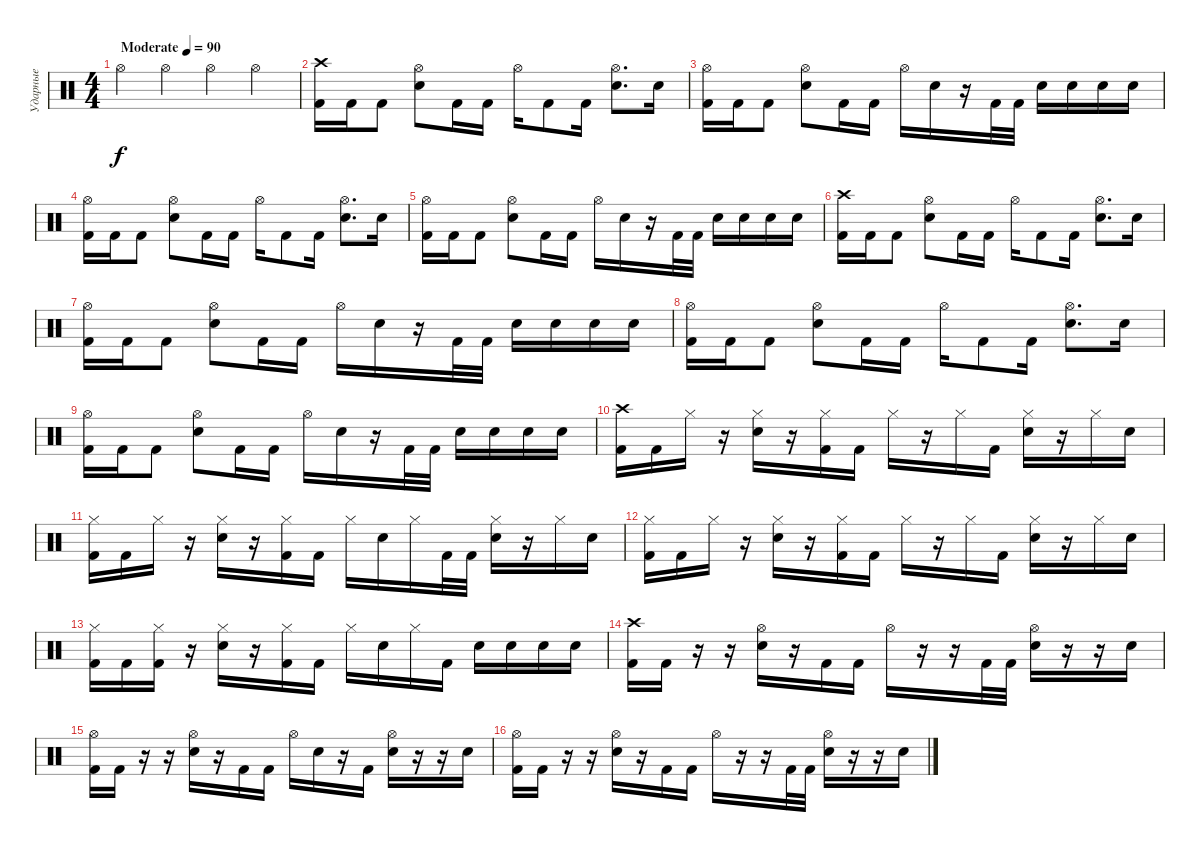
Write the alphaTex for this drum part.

\track ("Ударные" "Ударные") {instrument percussion}
\staff {score}
\articulation defaults
\ts (4 4)
\tempo (90 "Moderate")
\clef neutral
\ks c "Hi-Hat (open)".4{dy f} "Hi-Hat (open)".4 "Hi-Hat (open)".4 "Hi-Hat (open)".4
|
("Crash high (hit)" "Kick (hit) 2").16 "Kick (hit) 2".16 "Kick (hit) 2".8 ("Hi-Hat (open)" "Snare (hit) 2").8 "Kick (hit) 2".16 "Kick (hit) 2".16 "Hi-Hat (open)".16 "Kick (hit) 2".8 "Kick (hit) 2".16 ("Hi-Hat (open)" "Snare (hit) 2").8{d} "Snare (hit) 2".16 |
("Hi-Hat (open)" "Kick (hit) 2").16 "Kick (hit) 2".16 "Kick (hit) 2".8 ("Hi-Hat (open)" "Snare (hit) 2").8 "Kick (hit) 2".16 "Kick (hit) 2".16 "Hi-Hat (open)".16 "Snare (hit) 2".16 r.16 "Kick (hit) 2".32 "Kick (hit) 2".32 "Snare (hit) 2".16 "Snare (hit) 2".16 "Snare (hit) 2".16 "Snare (hit) 2".16 |
("Hi-Hat (open)" "Kick (hit) 2").16 "Kick (hit) 2".16 "Kick (hit) 2".8 ("Hi-Hat (open)" "Snare (hit) 2").8 "Kick (hit) 2".16 "Kick (hit) 2".16 "Hi-Hat (open)".16 "Kick (hit) 2".8 "Kick (hit) 2".16 ("Hi-Hat (open)" "Snare (hit) 2").8{d} "Snare (hit) 2".16 |
("Hi-Hat (open)" "Kick (hit) 2").16 "Kick (hit) 2".16 "Kick (hit) 2".8 ("Hi-Hat (open)" "Snare (hit) 2").8 "Kick (hit) 2".16 "Kick (hit) 2".16 "Hi-Hat (open)".16 "Snare (hit) 2".16 r.16 "Kick (hit) 2".32 "Kick (hit) 2".32 "Snare (hit) 2".16 "Snare (hit) 2".16 "Snare (hit) 2".16 "Snare (hit) 2".16 |
("Crash high (hit)" "Kick (hit) 2").16 "Kick (hit) 2".16 "Kick (hit) 2".8 ("Hi-Hat (open)" "Snare (hit) 2").8 "Kick (hit) 2".16 "Kick (hit) 2".16 "Hi-Hat (open)".16 "Kick (hit) 2".8 "Kick (hit) 2".16 ("Hi-Hat (open)" "Snare (hit) 2").8{d} "Snare (hit) 2".16 |
("Hi-Hat (open)" "Kick (hit) 2").16 "Kick (hit) 2".16 "Kick (hit) 2".8 ("Hi-Hat (open)" "Snare (hit) 2").8 "Kick (hit) 2".16 "Kick (hit) 2".16 "Hi-Hat (open)".16 "Snare (hit) 2".16 r.16 "Kick (hit) 2".32 "Kick (hit) 2".32 "Snare (hit) 2".16 "Snare (hit) 2".16 "Snare (hit) 2".16 "Snare (hit) 2".16 |
("Hi-Hat (open)" "Kick (hit) 2").16 "Kick (hit) 2".16 "Kick (hit) 2".8 ("Hi-Hat (open)" "Snare (hit) 2").8 "Kick (hit) 2".16 "Kick (hit) 2".16 "Hi-Hat (open)".16 "Kick (hit) 2".8 "Kick (hit) 2".16 ("Hi-Hat (open)" "Snare (hit) 2").8{d} "Snare (hit) 2".16 |
("Hi-Hat (open)" "Kick (hit) 2").16 "Kick (hit) 2".16 "Kick (hit) 2".8 ("Hi-Hat (open)" "Snare (hit) 2").8 "Kick (hit) 2".16 "Kick (hit) 2".16 "Hi-Hat (open)".16 "Snare (hit) 2".16 r.16 "Kick (hit) 2".32 "Kick (hit) 2".32 "Snare (hit) 2".16 "Snare (hit) 2".16 "Snare (hit) 2".16 "Snare (hit) 2".16 |
("Crash high (hit)" "Kick (hit) 2").16 "Kick (hit) 2".16 "Hi-Hat (closed)".16 r.16 ("Hi-Hat (closed)" "Snare (hit) 2").16 r.16 ("Hi-Hat (closed)" "Kick (hit) 2").16 "Kick (hit) 2".16 "Hi-Hat (closed)".16 r.16 "Hi-Hat (closed)".16 "Kick (hit) 2".16 ("Hi-Hat (closed)" "Snare (hit) 2").16 r.16 "Hi-Hat (closed)".16 "Snare (hit) 2".16 |
("Hi-Hat (closed)" "Kick (hit) 2").16 "Kick (hit) 2".16 "Hi-Hat (closed)".16 r.16 ("Hi-Hat (closed)" "Snare (hit) 2").16 r.16 ("Hi-Hat (closed)" "Kick (hit) 2").16 "Kick (hit) 2".16 "Hi-Hat (closed)".16 "Snare (hit) 2".16 "Hi-Hat (closed)".16 "Kick (hit) 2".32 "Kick (hit) 2".32 ("Hi-Hat (closed)" "Snare (hit) 2").16 r.16 "Hi-Hat (closed)".16 "Snare (hit) 2".16 |
("Hi-Hat (closed)" "Kick (hit) 2").16 "Kick (hit) 2".16 "Hi-Hat (closed)".16 r.16 ("Hi-Hat (closed)" "Snare (hit) 2").16 r.16 ("Hi-Hat (closed)" "Kick (hit) 2").16 "Kick (hit) 2".16 "Hi-Hat (closed)".16 r.16 "Hi-Hat (closed)".16 "Kick (hit) 2".16 ("Hi-Hat (closed)" "Snare (hit) 2").16 r.16 "Hi-Hat (closed)".16 "Snare (hit) 2".16 |
("Hi-Hat (closed)" "Kick (hit) 2").16 "Kick (hit) 2".16 ("Hi-Hat (closed)" "Kick (hit) 2").16 r.16 ("Hi-Hat (closed)" "Snare (hit) 2").16 r.16 ("Hi-Hat (closed)" "Kick (hit) 2").16 "Kick (hit) 2".16 "Hi-Hat (closed)".16 "Snare (hit) 2".16 "Hi-Hat (closed)".16 "Kick (hit) 2".16 "Snare (hit) 2".16 "Snare (hit) 2".16 "Snare (hit) 2".16 "Snare (hit) 2".16 |
("Crash high (hit)" "Kick (hit) 2").16 "Kick (hit) 2".16 r.16 r.16 ("Hi-Hat (open)" "Snare (hit) 2").16 r.16 "Kick (hit) 2".16 "Kick (hit) 2".16 "Hi-Hat (open)".16 r.16 r.16 "Kick (hit) 2".32 "Kick (hit) 2".32 ("Hi-Hat (open)" "Snare (hit) 2").16 r.16 r.16 "Snare (hit) 2".16 |
("Hi-Hat (open)" "Kick (hit) 2").16 "Kick (hit) 2".16 r.16 r.16 ("Hi-Hat (open)" "Snare (hit) 2").16 r.16 "Kick (hit) 2".16 "Kick (hit) 2".16 "Hi-Hat (open)".16 "Snare (hit) 2".16 r.16 "Kick (hit) 2".16 ("Hi-Hat (open)" "Snare (hit) 2").16 r.16 r.16 "Snare (hit) 2".16 |
("Hi-Hat (open)" "Kick (hit) 2").16 "Kick (hit) 2".16 r.16 r.16 ("Hi-Hat (open)" "Snare (hit) 2").16 r.16 "Kick (hit) 2".16 "Kick (hit) 2".16 "Hi-Hat (open)".16 r.16 r.16 "Kick (hit) 2".32 "Kick (hit) 2".32 ("Hi-Hat (open)" "Snare (hit) 2").16 r.16 r.16 "Snare (hit) 2".16
